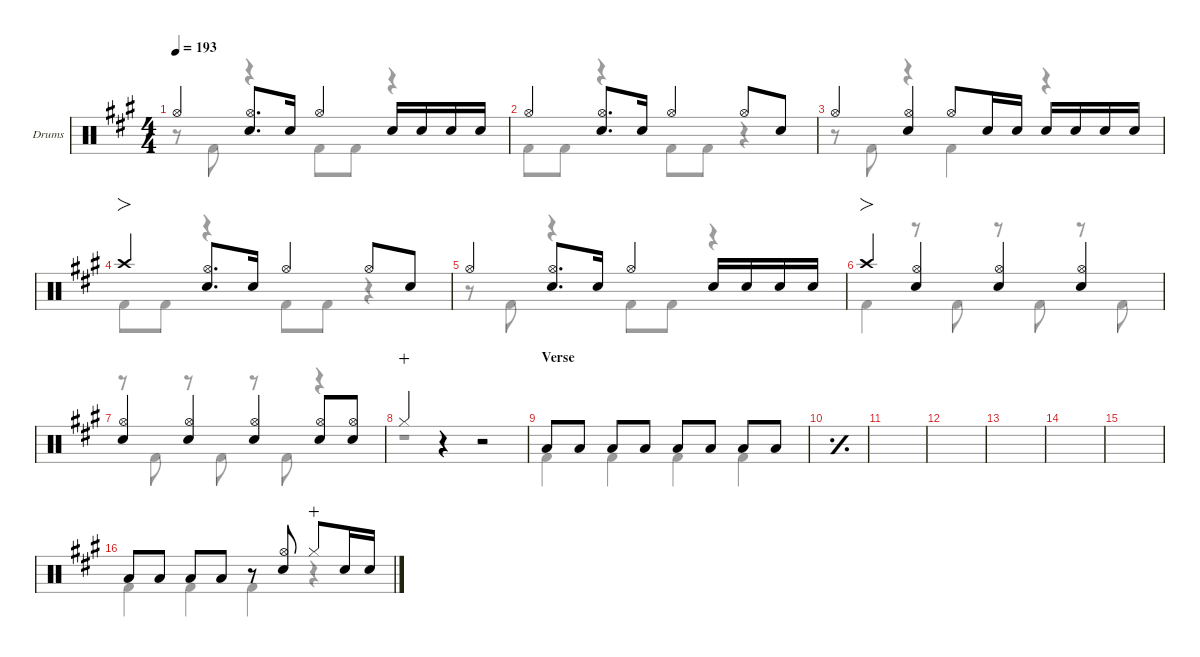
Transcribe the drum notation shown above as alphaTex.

\defaultSystemsLayout 4
\hideDynamics
\bracketExtendMode nobrackets
\firstSystemTrackNameOrientation horizontal
\track ("Drums" "Drums") {defaultSystemsLayout 4 instrument percussion}
\staff {score}
\articulation defaults
\voice
\ts (4 4)
\tempo 193
\clef neutral
\scale
0.244461
\ks a "Hi-Hat (open)"{acc forcenatural}.4{dy f beam Up}
("Hi-Hat (open)"{acc forcenatural} "Snare (hit) 2"{acc forcenatural}).8{d beam Up} "Snare (hit) 2"{acc forcenatural}.16{beam Up} "Hi-Hat (open)"{acc forcenatural}.4{beam Up} "Snare (hit) 2"{acc forcenatural}.16{beam Up} "Snare (hit) 2"{acc forcenatural}.16{dy mf beam Up} "Snare (hit) 2"{acc forcenatural}.16{dy f beam Up} "Snare (hit) 2"{acc forcenatural}.16{dy mf beam Up} |
\scale
0.244461 "Hi-Hat (open)"{acc forcenatural}.4{dy f beam Up} ("Hi-Hat (open)"{acc forcenatural} "Snare (hit) 2"{acc forcenatural}).8{d beam Up} "Snare (hit) 2"{acc forcenatural}.16{beam Up} "Hi-Hat (open)"{acc forcenatural}.4{beam Up} "Hi-Hat (open)"{acc forcenatural}.8{beam Up} "Snare (hit) 2"{acc forcenatural}.8{beam Up} |
\scale
0.244461 "Hi-Hat (open)"{acc forcenatural}.4{beam Up} ("Hi-Hat (open)"{acc forcenatural} "Snare (hit) 2"{acc forcenatural}).4{beam Up} "Hi-Hat (open)"{acc forcenatural}.8{beam Up} "Snare (hit) 2"{acc forcenatural}.16{beam Up} "Snare (hit) 2"{acc forcenatural}.16{dy mf beam Up beam split} "Snare (hit) 2"{acc forcenatural}.16{dy f beam Up} "Snare (hit) 2"{acc forcenatural}.16{dy mf beam Up} "Snare (hit) 2"{acc forcenatural}.16{dy f beam Up} "Snare (hit) 2"{acc forcenatural}.16{dy mf beam Up} |
\scale
0.266618 "Crash high (hit)"{acc forcenatural}.4{fo dy f beam Up} ("Hi-Hat (open)"{acc forcenatural} "Snare (hit) 2"{acc forcenatural}).8{d beam Up} "Snare (hit) 2"{acc forcenatural}.16{beam Up} "Hi-Hat (open)"{acc forcenatural}.4{beam Up} "Hi-Hat (open)"{acc forcenatural}.8{beam Up} "Snare (hit) 2"{acc forcenatural}.8{beam Up} |
\scale
0.244461 "Hi-Hat (open)"{acc forcenatural}.4{beam Up} ("Hi-Hat (open)"{acc forcenatural} "Snare (hit) 2"{acc forcenatural}).8{d beam Up} "Snare (hit) 2"{acc forcenatural}.16{beam Up} "Hi-Hat (open)"{acc forcenatural}.4{beam Up} "Snare (hit) 2"{acc forcenatural}.16{beam Up} "Snare (hit) 2"{acc forcenatural}.16{dy mf beam Up} "Snare (hit) 2"{acc forcenatural}.16{dy f beam Up} "Snare (hit) 2"{acc forcenatural}.16{dy mf beam Up} |
\scale
0.244461 "Crash high (hit)"{acc forcenatural}.4{fo dy f beam Up} ("Hi-Hat (open)"{acc forcenatural} "Snare (hit) 2"{acc forcenatural}).4{beam Up} ("Hi-Hat (open)"{acc forcenatural} "Snare (hit) 2"{acc forcenatural}).4{beam Up} ("Hi-Hat (open)"{acc forcenatural} "Snare (hit) 2"{acc forcenatural}).4{beam Up} |
\scale
0.244461 ("Hi-Hat (open)"{acc forcenatural} "Snare (hit) 2"{acc forcenatural}).4{beam Up} ("Hi-Hat (open)"{acc forcenatural} "Snare (hit) 2"{acc forcenatural}).4{beam Up} ("Hi-Hat (open)"{acc forcenatural} "Snare (hit) 2"{acc forcenatural}).4{beam Up} ("Snare (hit) 2"{acc forcenatural} "Hi-Hat (open)"{acc forcenatural}).8{beam Up} ("Snare (hit) 2"{acc forcenatural} "Hi-Hat (open)"{acc forcenatural}).8{beam Up} |
"Hi-Hat (closed)"{acc forcenatural}.4{dy mp wahc beam Up} r.4{beam Up} r.2{beam Up} |
\section ("" "Verse")
\scale
0.266618 "Low Tom (hit)"{acc forcenatural}.8{dy f beam Up} "Low Tom (hit)"{acc forcenatural}.8{beam Up} "Low Tom (hit)"{acc forcenatural}.8{beam Up} "Low Tom (hit)"{acc forcenatural}.8{beam Up} "Low Tom (hit)"{acc forcenatural}.8{beam Up} "Low Tom (hit)"{acc forcenatural}.8{beam Up} "Low Tom (hit)"{acc forcenatural}.8{beam Up} "Low Tom (hit)"{acc forcenatural}.8{beam Up} |
\simile simple
\scale
0.244461 |
\scale
0.244461 |
\scale
0.244461 |
\scale
0.266618 |
\scale
0.244461 |
\scale
0.244461 |
\simile none
\scale
0.244461 "Low Tom (hit)"{acc forcenatural}.8{beam Up} "Low Tom (hit)"{acc forcenatural}.8{beam Up} "Low Tom (hit)"{acc forcenatural}.8{beam Up} "Low Tom (hit)"{acc forcenatural}.8{beam Up} r.8{beam Up} ("Snare (hit) 2"{acc forcenatural} "Hi-Hat (open)"{acc forcenatural}).8{beam Up beam split} "Hi-Hat (closed)"{acc forcenatural}.8{dy mp wahc beam Up} "Snare (hit) 2"{acc forcenatural}.16{dy f beam Up} "Snare (hit) 2"{acc forcenatural}.16{dy mf beam Up}
\voice
\clef neutral
\ottava regular
\simile none
\scale
0.244461
\ks a
r.8{dy f beam Down} "Kick (hit) 2"{acc forcenatural}.8{beam Down} r.4{beam Down} "Kick (hit) 2"{acc forcenatural}.8{beam Down} "Kick (hit) 2"{acc forcenatural}.8{beam Down} r.4{beam Down} |
\scale
0.244461 "Kick (hit) 2"{acc forcenatural}.8{beam Down} "Kick (hit) 2"{acc forcenatural}.8{beam Down} r.4{beam Down} "Kick (hit) 2"{acc forcenatural}.8{beam Down} "Kick (hit) 2"{acc forcenatural}.8{beam Down} r.4{beam Down} |
\scale
0.244461 r.8{beam Down} "Kick (hit) 2"{acc forcenatural}.8{beam Down} r.4{beam Down} "Kick (hit) 2"{acc forcenatural}.4{beam Down} r.4{beam Down} |
\scale
0.266618 "Kick (hit) 2"{acc forcenatural}.8{beam Down} "Kick (hit) 2"{acc forcenatural}.8{beam Down} r.4{beam Down} "Kick (hit) 2"{acc forcenatural}.8{beam Down} "Kick (hit) 2"{acc forcenatural}.8{beam Down} r.4{beam Down} |
\scale
0.244461 r.8{beam Down} "Kick (hit) 2"{acc forcenatural}.8{beam Down} r.4{beam Down} "Kick (hit) 2"{acc forcenatural}.8{beam Down} "Kick (hit) 2"{acc forcenatural}.8{beam Down} r.4{beam Down} |
\scale
0.244461 "Kick (hit) 2"{acc forcenatural}.4{beam Down} r.8{beam Down} "Kick (hit) 2"{acc forcenatural}.8{beam Down} r.8{beam Down} "Kick (hit) 2"{acc forcenatural}.8{beam Down} r.8{beam Down} "Kick (hit) 2"{acc forcenatural}.8{beam Down} |
\scale
0.244461 r.8{beam Down} "Kick (hit) 2"{acc forcenatural}.8{beam Down} r.8{beam Down} "Kick (hit) 2"{acc forcenatural}.8{beam Down} r.8{beam Down} "Kick (hit) 2"{acc forcenatural}.8{beam Down} r.4{beam Down} |
r.1{beam Down} |
\scale
0.266618 "Kick (hit) 2"{acc forcenatural}.4{beam Down} "Kick (hit) 2"{acc forcenatural}.4{beam Down} "Kick (hit) 2"{acc forcenatural}.4{beam Down} "Kick (hit) 2"{acc forcenatural}.4{beam Down} |
\simile simple
\scale
0.244461 |
\scale
0.244461 |
\scale
0.244461 |
\scale
0.266618 |
\scale
0.244461 |
\scale
0.244461 |
\simile none
\scale
0.244461 "Kick (hit) 2"{acc forcenatural}.4{beam Down} "Kick (hit) 2"{acc forcenatural}.4{beam Down} "Kick (hit) 2"{acc forcenatural}.4{beam Down} r.4{beam Down}
